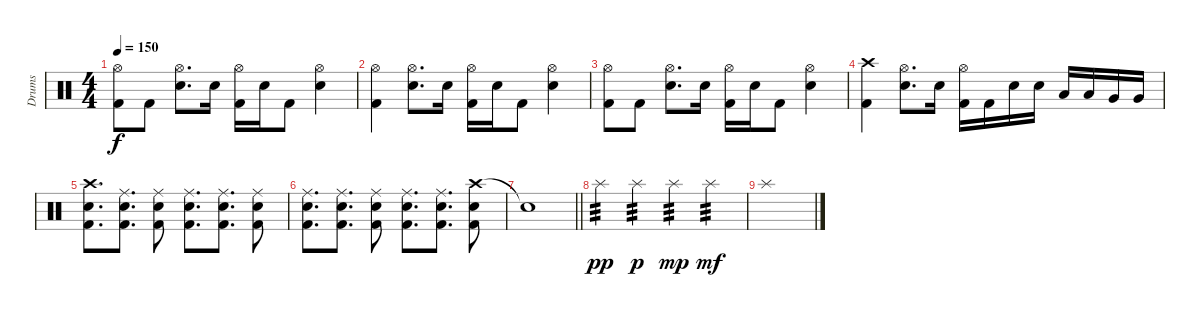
\track ("Drums" "Drums") {instrument percussion}
\staff {score}
\articulation defaults
\ts (4 4)
\tempo 150
\clef neutral
\ks c
("Hi-Hat (open)" "Kick (hit) 2").8{dy f} "Kick (hit) 2".8 ("Hi-Hat (open)" "Snare (hit) 2").8{d} "Snare (hit) 2".16 ("Hi-Hat (open)" "Kick (hit) 2").16 "Snare (hit) 2".16 "Kick (hit) 2".8 ("Hi-Hat (open)" "Snare (hit) 2").4 |
("Hi-Hat (open)" "Kick (hit) 2").4 ("Hi-Hat (open)" "Snare (hit) 2").8{d} "Snare (hit) 2".16 ("Hi-Hat (open)" "Kick (hit) 2").16 "Snare (hit) 2".16 "Kick (hit) 2".8 ("Hi-Hat (open)" "Snare (hit) 2").4 |
("Hi-Hat (open)" "Kick (hit) 2").8 "Kick (hit) 2".8 ("Hi-Hat (open)" "Snare (hit) 2").8{d} "Snare (hit) 2".16 ("Hi-Hat (open)" "Kick (hit) 2").16 "Snare (hit) 2".16 "Kick (hit) 2".8 ("Hi-Hat (open)" "Snare (hit) 2").4 |
("Crash high (hit)" "Kick (hit) 2").4 ("Hi-Hat (open)" "Snare (hit) 2").8{d} "Snare (hit) 2".16 ("Hi-Hat (open)" "Kick (hit) 2").16 "Kick (hit) 2".16 "Snare (hit) 2".16 "Snare (hit) 2".16 "Low Tom (hit)".16 "Low Tom (hit)".16 "Very Low Tom (hit)".16 "Very Low Tom (hit)".16 |
("Crash high (hit)" "Snare (hit) 2" "Kick (hit) 2").8{d} ("Ride (middle)" "Snare (hit) 2" "Kick (hit) 2").8{d} ("Ride (middle)" "Snare (hit) 2" "Kick (hit) 2").8 ("Ride (middle)" "Snare (hit) 2" "Kick (hit) 2").8{d} ("Ride (middle)" "Snare (hit) 2" "Kick (hit) 2").8{d} ("Ride (middle)" "Snare (hit) 2" "Kick (hit) 2").8 |
("Ride (middle)" "Snare (hit) 2" "Kick (hit) 2").8{d} ("Ride (middle)" "Snare (hit) 2" "Kick (hit) 2").8{d} ("Ride (middle)" "Snare (hit) 2" "Kick (hit) 2").8 ("Ride (middle)" "Snare (hit) 2" "Kick (hit) 2").8{d} ("Ride (middle)" "Snare (hit) 2" "Kick (hit) 2").8{d} ("Crash high (hit)" "Snare (hit) 2" "Kick (hit) 2").8 |
\barLineRight lightlight "Snare (hit)"{t}.1
|
"Splash (hit)".4{tp 3 dy pp} "Splash (hit)".4{tp 3 dy p} "Splash (hit)".4{tp 3 dy mp} "Splash (hit)".4{tp 3 dy mf} |
"Splash (hit)".1
